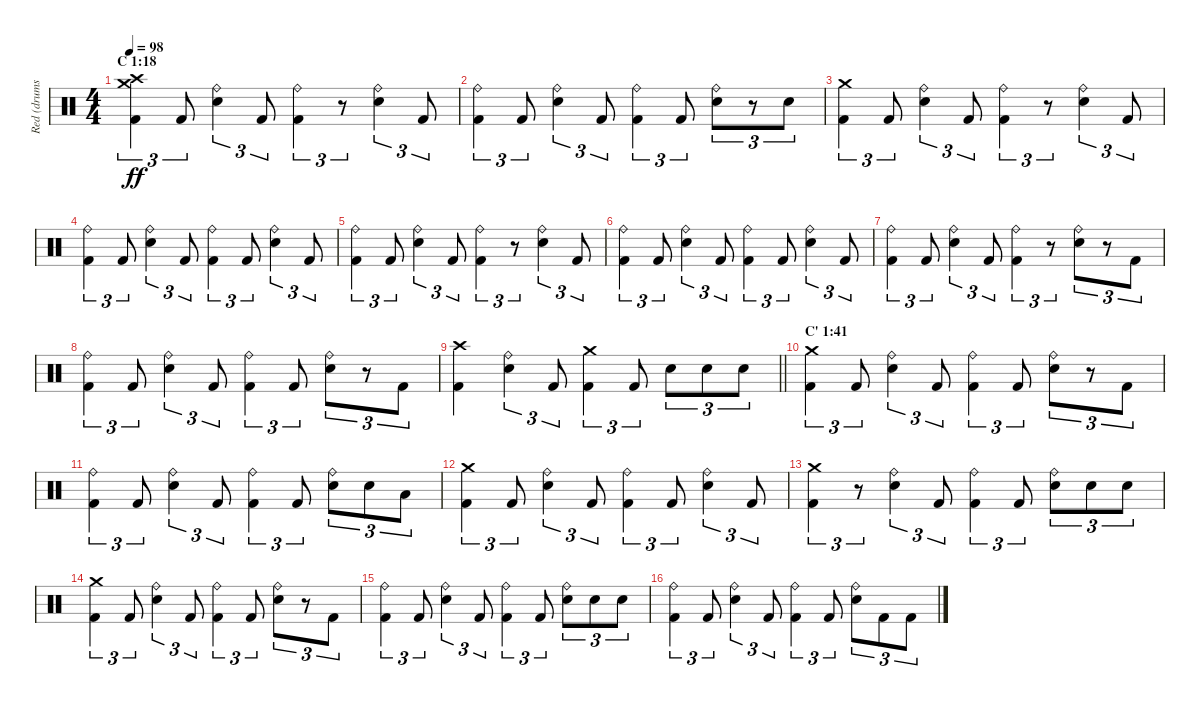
\track ("Red (drums)" "Red (drums") {instrument percussion}
\staff {score}
\articulation defaults
\ts (4 4)
\section ("" "C 1:18")
\tempo 98
\clef neutral
\ks c
("Crash medium (hit)" "Crash high (hit)" "Kick (hit) 2").4{tu (3 2) dy ff} "Kick (hit) 2".8{tu (3 2)} ("Ride (bell)" "Electric Snare (hit)").4{tu (3 2)} "Kick (hit) 2".8{tu (3 2)} ("Ride (bell)" "Kick (hit) 2").4{tu (3 2)} r.8{tu (3 2)} ("Ride (bell)" "Electric Snare (hit)").4{tu (3 2)} "Kick (hit) 2".8{tu (3 2)} |
("Ride (bell)" "Kick (hit) 2").4{tu (3 2)} "Kick (hit) 2".8{tu (3 2)} ("Ride (bell)" "Electric Snare (hit)").4{tu (3 2)} "Kick (hit) 2".8{tu (3 2)} ("Ride (bell)" "Kick (hit) 2").4{tu (3 2)} "Kick (hit) 2".8{tu (3 2)} ("Ride (bell)" "Electric Snare (hit)").8{tu (3 2)} r.8{tu (3 2)} "Electric Snare (hit)".8{tu (3 2)} |
("Crash medium (hit)" "Kick (hit) 2").4{tu (3 2)} "Kick (hit) 2".8{tu (3 2)} ("Ride (bell)" "Electric Snare (hit)").4{tu (3 2)} "Kick (hit) 2".8{tu (3 2)} ("Ride (bell)" "Kick (hit) 2").4{tu (3 2)} r.8{tu (3 2)} ("Ride (bell)" "Electric Snare (hit)").4{tu (3 2)} "Kick (hit) 2".8{tu (3 2)} |
("Ride (bell)" "Kick (hit) 2").4{tu (3 2)} "Kick (hit) 2".8{tu (3 2)} ("Ride (bell)" "Electric Snare (hit)").4{tu (3 2)} "Kick (hit) 2".8{tu (3 2)} ("Ride (bell)" "Kick (hit) 2").4{tu (3 2)} "Kick (hit) 2".8{tu (3 2)} ("Ride (bell)" "Electric Snare (hit)").4{tu (3 2)} "Kick (hit) 2".8{tu (3 2)} |
("Ride (bell)" "Kick (hit) 2").4{tu (3 2)} "Kick (hit) 2".8{tu (3 2)} ("Ride (bell)" "Electric Snare (hit)").4{tu (3 2)} "Kick (hit) 2".8{tu (3 2)} ("Ride (bell)" "Kick (hit) 2").4{tu (3 2)} r.8{tu (3 2)} ("Ride (bell)" "Electric Snare (hit)").4{tu (3 2)} "Kick (hit) 2".8{tu (3 2)} |
("Ride (bell)" "Kick (hit) 2").4{tu (3 2)} "Kick (hit) 2".8{tu (3 2)} ("Ride (bell)" "Electric Snare (hit)").4{tu (3 2)} "Kick (hit) 2".8{tu (3 2)} ("Ride (bell)" "Kick (hit) 2").4{tu (3 2)} "Kick (hit) 2".8{tu (3 2)} ("Ride (bell)" "Electric Snare (hit)").4{tu (3 2)} "Kick (hit) 2".8{tu (3 2)} |
("Ride (bell)" "Kick (hit) 2").4{tu (3 2)} "Kick (hit) 2".8{tu (3 2)} ("Ride (bell)" "Electric Snare (hit)").4{tu (3 2)} "Kick (hit) 2".8{tu (3 2)} ("Ride (bell)" "Kick (hit) 2").4{tu (3 2)} r.8{tu (3 2)} ("Ride (bell)" "Electric Snare (hit)").8{tu (3 2)} r.8{tu (3 2)} "Kick (hit) 2".8{tu (3 2)} |
("Ride (bell)" "Kick (hit) 2").4{tu (3 2)} "Kick (hit) 2".8{tu (3 2)} ("Ride (bell)" "Electric Snare (hit)").4{tu (3 2)} "Kick (hit) 2".8{tu (3 2)} ("Ride (bell)" "Kick (hit) 2").4{tu (3 2)} "Kick (hit) 2".8{tu (3 2)} ("Ride (bell)" "Electric Snare (hit)").8{tu (3 2)} r.8{tu (3 2)} "Kick (hit) 2".8{tu (3 2)} |
\barLineRight lightlight
("Crash high (hit)" "Kick (hit) 2").4 ("Ride (bell)" "Electric Snare (hit)").4{tu (3 2)} "Kick (hit) 2".8{tu (3 2)} ("Crash medium (hit)" "Kick (hit) 2").4{tu (3 2)} "Kick (hit) 2".8{tu (3 2)} "Electric Snare (hit)".8{tu (3 2)} "Electric Snare (hit)".8{tu (3 2)} "Electric Snare (hit)".8{tu (3 2)} |
\section ("" "C' 1:41")
("Crash medium (hit)" "Kick (hit) 2").4{tu (3 2)} "Kick (hit) 2".8{tu (3 2)} ("Ride (bell)" "Electric Snare (hit)").4{tu (3 2)} "Kick (hit) 2".8{tu (3 2)} ("Ride (bell)" "Kick (hit) 2").4{tu (3 2)} "Kick (hit) 2".8{tu (3 2)} ("Ride (bell)" "Electric Snare (hit)").8{tu (3 2)} r.8{tu (3 2)} "Kick (hit) 2".8{tu (3 2)} |
("Ride (bell)" "Kick (hit) 2").4{tu (3 2)} "Kick (hit) 2".8{tu (3 2)} ("Ride (bell)" "Electric Snare (hit)").4{tu (3 2)} "Kick (hit) 2".8{tu (3 2)} ("Ride (bell)" "Kick (hit) 2").4{tu (3 2)} "Kick (hit) 2".8{tu (3 2)} ("Ride (bell)" "Electric Snare (hit)").8{tu (3 2)} "Electric Snare (hit)".8{tu (3 2)} "Low Floor Tom (hit)".8{tu (3 2)} |
("Crash medium (hit)" "Kick (hit) 2").4{tu (3 2)} "Kick (hit) 2".8{tu (3 2)} ("Ride (bell)" "Electric Snare (hit)").4{tu (3 2)} "Kick (hit) 2".8{tu (3 2)} ("Ride (bell)" "Kick (hit) 2").4{tu (3 2)} "Kick (hit) 2".8{tu (3 2)} ("Ride (bell)" "Electric Snare (hit)").4{tu (3 2)} "Kick (hit) 2".8{tu (3 2)} |
("Crash medium (hit)" "Kick (hit) 2").4{tu (3 2)} r.8{tu (3 2)} ("Ride (bell)" "Electric Snare (hit)").4{tu (3 2)} "Kick (hit) 2".8{tu (3 2)} ("Ride (bell)" "Kick (hit) 2").4{tu (3 2)} "Kick (hit) 2".8{tu (3 2)} ("Ride (bell)" "Electric Snare (hit)").8{tu (3 2)} "Electric Snare (hit)".8{tu (3 2)} "Electric Snare (hit)".8{tu (3 2)} |
("Crash medium (hit)" "Kick (hit) 2").4{tu (3 2)} "Kick (hit) 2".8{tu (3 2)} ("Ride (bell)" "Electric Snare (hit)").4{tu (3 2)} "Kick (hit) 2".8{tu (3 2)} ("Ride (bell)" "Kick (hit) 2").4{tu (3 2)} "Kick (hit) 2".8{tu (3 2)} ("Ride (bell)" "Electric Snare (hit)").8{tu (3 2)} r.8{tu (3 2)} "Kick (hit) 2".8{tu (3 2)} |
("Ride (bell)" "Kick (hit) 2").4{tu (3 2)} "Kick (hit) 2".8{tu (3 2)} ("Ride (bell)" "Electric Snare (hit)").4{tu (3 2)} "Kick (hit) 2".8{tu (3 2)} ("Ride (bell)" "Kick (hit) 2").4{tu (3 2)} "Kick (hit) 2".8{tu (3 2)} ("Ride (bell)" "Electric Snare (hit)").8{tu (3 2)} "Electric Snare (hit)".8{tu (3 2)} "Electric Snare (hit)".8{tu (3 2)} |
("Ride (bell)" "Kick (hit) 2").4{tu (3 2)} "Kick (hit) 2".8{tu (3 2)} ("Ride (bell)" "Electric Snare (hit)").4{tu (3 2)} "Kick (hit) 2".8{tu (3 2)} ("Ride (bell)" "Kick (hit) 2").4{tu (3 2)} "Kick (hit) 2".8{tu (3 2)} ("Ride (bell)" "Electric Snare (hit)").8{tu (3 2)} "Kick (hit) 2".8{tu (3 2)} "Kick (hit) 2".8{tu (3 2)}
